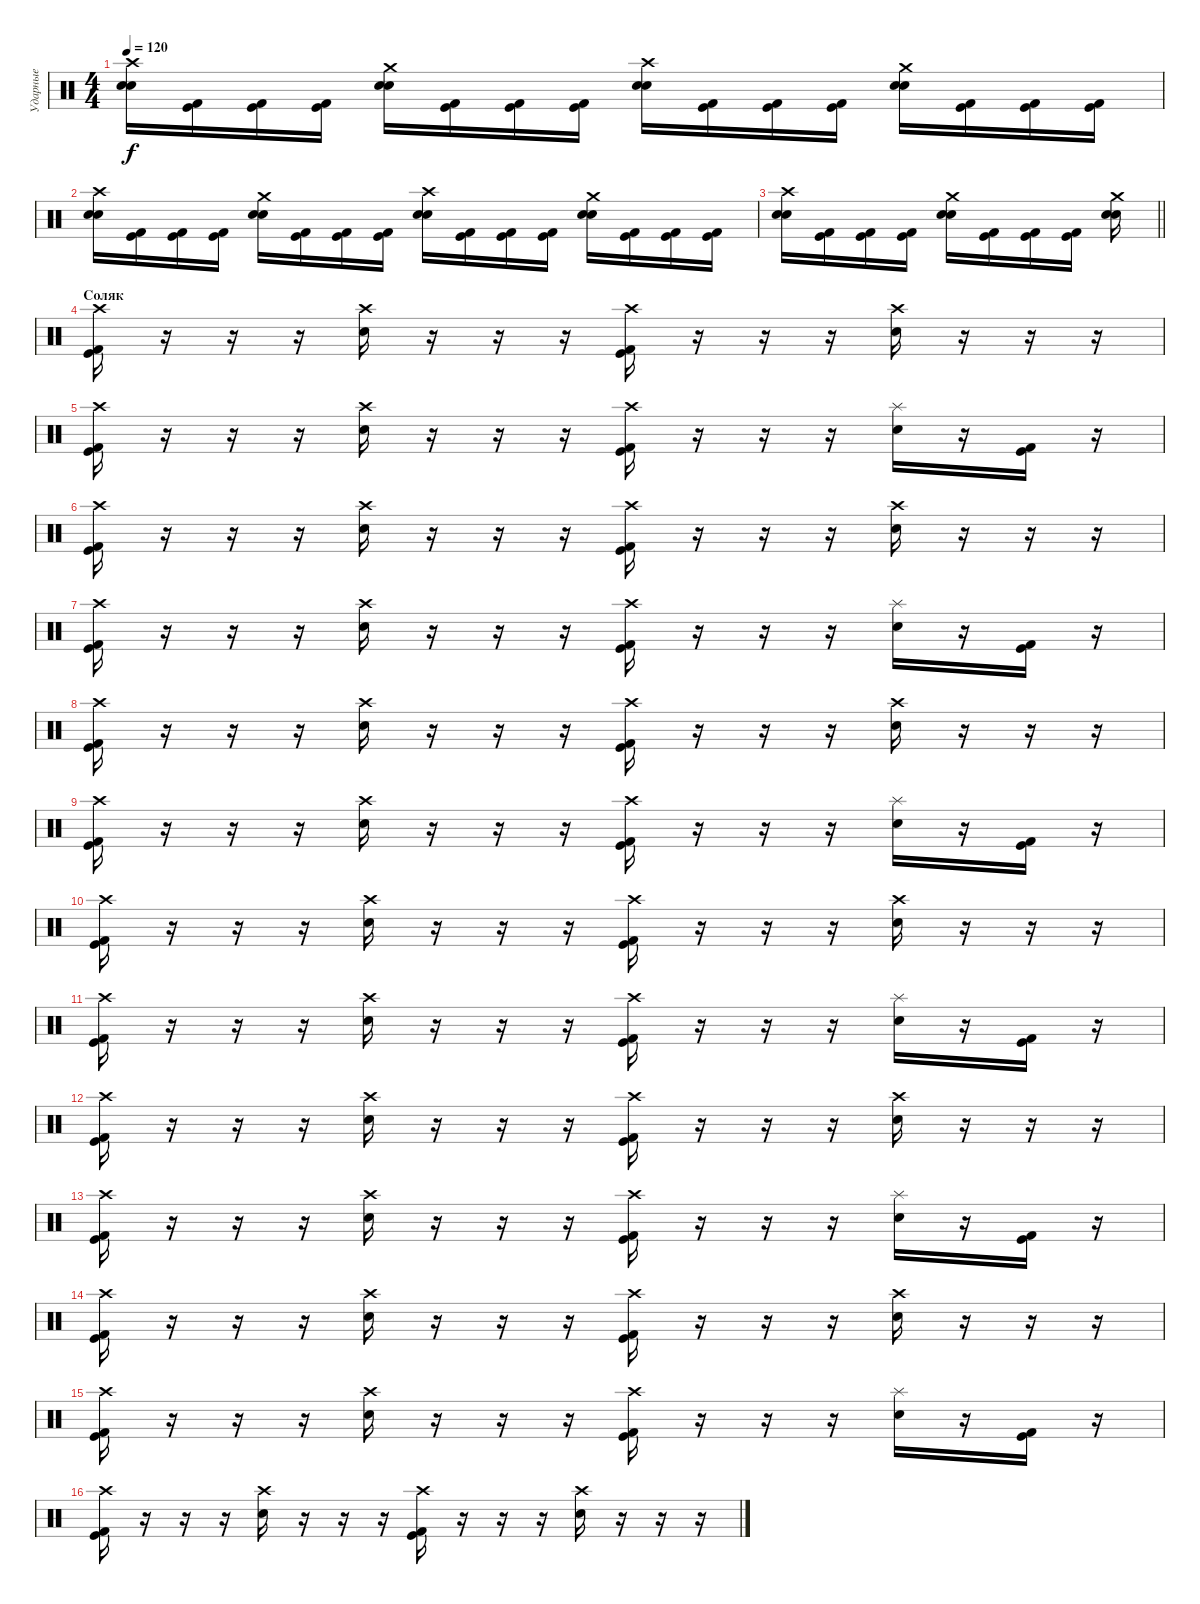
\track ("Ударные" "Ударные") {instrument percussion}
\staff {score}
\articulation defaults
\ts (4 4)
\tempo 120
\clef neutral
\ks c
("Crash high (hit)" "Snare (hit) 2" "Electric Snare (hit)").16{dy f} ("Kick (hit)" "Kick (hit) 2").16 ("Kick (hit)" "Kick (hit) 2").16 ("Kick (hit)" "Kick (hit) 2").16 ("Crash medium (hit)" "Snare (hit) 2" "Electric Snare (hit)").16 ("Kick (hit)" "Kick (hit) 2").16 ("Kick (hit)" "Kick (hit) 2").16 ("Kick (hit)" "Kick (hit) 2").16 ("Crash high (hit)" "Snare (hit) 2" "Electric Snare (hit)").16 ("Kick (hit)" "Kick (hit) 2").16 ("Kick (hit)" "Kick (hit) 2").16 ("Kick (hit)" "Kick (hit) 2").16 ("Crash medium (hit)" "Snare (hit) 2" "Electric Snare (hit)").16 ("Kick (hit)" "Kick (hit) 2").16 ("Kick (hit)" "Kick (hit) 2").16 ("Kick (hit)" "Kick (hit) 2").16 |
("Crash high (hit)" "Snare (hit) 2" "Electric Snare (hit)").16 ("Kick (hit)" "Kick (hit) 2").16 ("Kick (hit)" "Kick (hit) 2").16 ("Kick (hit)" "Kick (hit) 2").16 ("Crash medium (hit)" "Snare (hit) 2" "Electric Snare (hit)").16 ("Kick (hit)" "Kick (hit) 2").16 ("Kick (hit)" "Kick (hit) 2").16 ("Kick (hit)" "Kick (hit) 2").16 ("Crash high (hit)" "Snare (hit) 2" "Electric Snare (hit)").16 ("Kick (hit)" "Kick (hit) 2").16 ("Kick (hit)" "Kick (hit) 2").16 ("Kick (hit)" "Kick (hit) 2").16 ("Crash medium (hit)" "Snare (hit) 2" "Electric Snare (hit)").16 ("Kick (hit)" "Kick (hit) 2").16 ("Kick (hit)" "Kick (hit) 2").16 ("Kick (hit)" "Kick (hit) 2").16 |
\barLineRight lightlight
("Crash high (hit)" "Snare (hit) 2" "Electric Snare (hit)").16 ("Kick (hit)" "Kick (hit) 2").16 ("Kick (hit)" "Kick (hit) 2").16 ("Kick (hit)" "Kick (hit) 2").16 ("Crash medium (hit)" "Snare (hit) 2" "Electric Snare (hit)").16 ("Kick (hit)" "Kick (hit) 2").16 ("Kick (hit)" "Kick (hit) 2").16 ("Kick (hit)" "Kick (hit) 2").16 ("Crash medium (hit)" "Snare (hit) 2" "Electric Snare (hit)").16 |
\section ("" "Соляк")
("Crash high (hit)" "Kick (hit)" "Kick (hit) 2").16 r.16 r.16 r.16 ("Crash high (hit)" "Electric Snare (hit)").16 r.16 r.16 r.16 ("Crash high (hit)" "Kick (hit)" "Kick (hit) 2").16 r.16 r.16 r.16 ("Crash high (hit)" "Electric Snare (hit)").16 r.16 r.16 r.16 |
("Crash high (hit)" "Kick (hit) 2" "Kick (hit)").16 r.16 r.16 r.16 ("Crash high (hit)" "Electric Snare (hit)").16 r.16 r.16 r.16 ("Crash high (hit)" "Kick (hit) 2" "Kick (hit)").16 r.16 r.16 r.16 ("Splash (hit)" "Electric Snare (hit)").16 r.16 ("Kick (hit) 2" "Kick (hit)").16 r.16 |
("Crash high (hit)" "Kick (hit)" "Kick (hit) 2").16 r.16 r.16 r.16 ("Crash high (hit)" "Electric Snare (hit)").16 r.16 r.16 r.16 ("Crash high (hit)" "Kick (hit)" "Kick (hit) 2").16 r.16 r.16 r.16 ("Crash high (hit)" "Electric Snare (hit)").16 r.16 r.16 r.16 |
("Crash high (hit)" "Kick (hit) 2" "Kick (hit)").16 r.16 r.16 r.16 ("Crash high (hit)" "Electric Snare (hit)").16 r.16 r.16 r.16 ("Crash high (hit)" "Kick (hit) 2" "Kick (hit)").16 r.16 r.16 r.16 ("Splash (hit)" "Electric Snare (hit)").16 r.16 ("Kick (hit) 2" "Kick (hit)").16 r.16 |
("Crash high (hit)" "Kick (hit)" "Kick (hit) 2").16 r.16 r.16 r.16 ("Crash high (hit)" "Electric Snare (hit)").16 r.16 r.16 r.16 ("Crash high (hit)" "Kick (hit)" "Kick (hit) 2").16 r.16 r.16 r.16 ("Crash high (hit)" "Electric Snare (hit)").16 r.16 r.16 r.16 |
("Crash high (hit)" "Kick (hit) 2" "Kick (hit)").16 r.16 r.16 r.16 ("Crash high (hit)" "Electric Snare (hit)").16 r.16 r.16 r.16 ("Crash high (hit)" "Kick (hit) 2" "Kick (hit)").16 r.16 r.16 r.16 ("Splash (hit)" "Electric Snare (hit)").16 r.16 ("Kick (hit) 2" "Kick (hit)").16 r.16 |
("Crash high (hit)" "Kick (hit)" "Kick (hit) 2").16 r.16 r.16 r.16 ("Crash high (hit)" "Electric Snare (hit)").16 r.16 r.16 r.16 ("Crash high (hit)" "Kick (hit)" "Kick (hit) 2").16 r.16 r.16 r.16 ("Crash high (hit)" "Electric Snare (hit)").16 r.16 r.16 r.16 |
("Crash high (hit)" "Kick (hit) 2" "Kick (hit)").16 r.16 r.16 r.16 ("Crash high (hit)" "Electric Snare (hit)").16 r.16 r.16 r.16 ("Crash high (hit)" "Kick (hit) 2" "Kick (hit)").16 r.16 r.16 r.16 ("Splash (hit)" "Electric Snare (hit)").16 r.16 ("Kick (hit) 2" "Kick (hit)").16 r.16 |
("Crash high (hit)" "Kick (hit)" "Kick (hit) 2").16 r.16 r.16 r.16 ("Crash high (hit)" "Electric Snare (hit)").16 r.16 r.16 r.16 ("Crash high (hit)" "Kick (hit)" "Kick (hit) 2").16 r.16 r.16 r.16 ("Crash high (hit)" "Electric Snare (hit)").16 r.16 r.16 r.16 |
("Crash high (hit)" "Kick (hit) 2" "Kick (hit)").16 r.16 r.16 r.16 ("Crash high (hit)" "Electric Snare (hit)").16 r.16 r.16 r.16 ("Crash high (hit)" "Kick (hit) 2" "Kick (hit)").16 r.16 r.16 r.16 ("Splash (hit)" "Electric Snare (hit)").16 r.16 ("Kick (hit) 2" "Kick (hit)").16 r.16 |
("Crash high (hit)" "Kick (hit)" "Kick (hit) 2").16 r.16 r.16 r.16 ("Crash high (hit)" "Electric Snare (hit)").16 r.16 r.16 r.16 ("Crash high (hit)" "Kick (hit)" "Kick (hit) 2").16 r.16 r.16 r.16 ("Crash high (hit)" "Electric Snare (hit)").16 r.16 r.16 r.16 |
("Crash high (hit)" "Kick (hit) 2" "Kick (hit)").16 r.16 r.16 r.16 ("Crash high (hit)" "Electric Snare (hit)").16 r.16 r.16 r.16 ("Crash high (hit)" "Kick (hit) 2" "Kick (hit)").16 r.16 r.16 r.16 ("Splash (hit)" "Electric Snare (hit)").16 r.16 ("Kick (hit) 2" "Kick (hit)").16 r.16 |
("Crash high (hit)" "Kick (hit)" "Kick (hit) 2").16 r.16 r.16 r.16 ("Crash high (hit)" "Electric Snare (hit)").16 r.16 r.16 r.16 ("Crash high (hit)" "Kick (hit)" "Kick (hit) 2").16 r.16 r.16 r.16 ("Crash high (hit)" "Electric Snare (hit)").16 r.16 r.16 r.16
